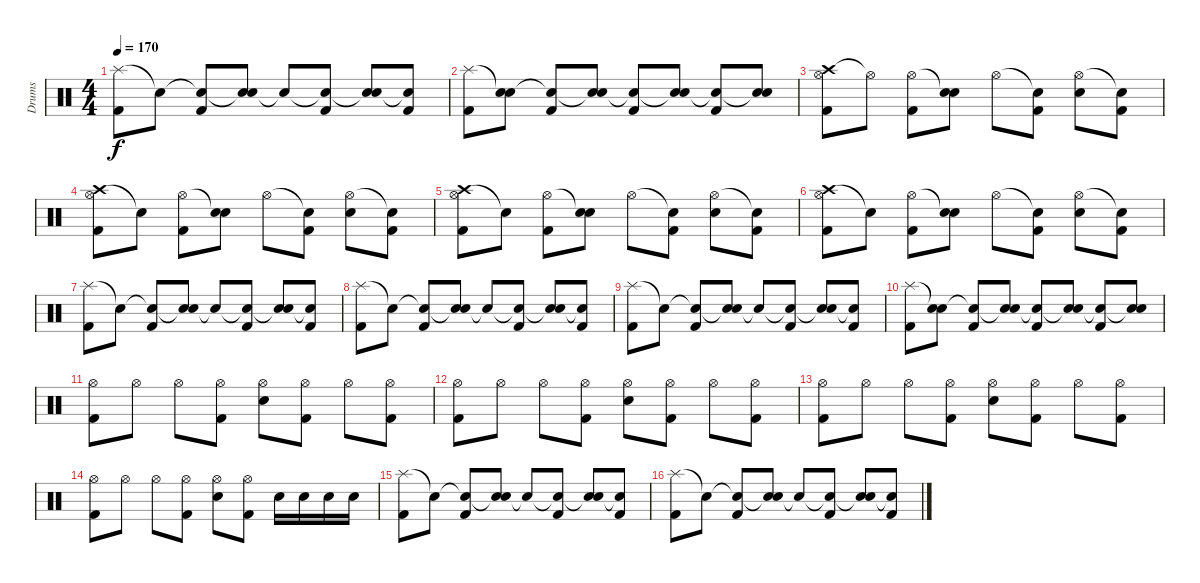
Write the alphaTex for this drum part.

\track ("Drums" "Drums") {instrument percussion}
\staff {score}
\articulation defaults
\ts (4 4)
\tempo 170
\clef neutral
\ks c
("Splash (hit)" "Kick (hit) 2").8{dy f} "Snare (hit)"{t}.8 ("Snare (hit)"{t} "Kick (hit) 2").8 ("Snare (hit)"{t} "Electric Snare (hit)").8 "Snare (hit)"{t}.8 ("Snare (hit)"{t} "Kick (hit) 2").8 ("Snare (hit)"{t} "Electric Snare (hit)").8 ("Snare (hit)"{t} "Kick (hit) 2").8 |
("Splash (hit)" "Kick (hit) 2").8 ("Snare (hit)"{t} "Electric Snare (hit)").8 ("Snare (hit)"{t} "Kick (hit) 2").8 ("Snare (hit)"{t} "Electric Snare (hit)").8 ("Snare (hit)"{t} "Kick (hit) 2").8 ("Snare (hit)"{t} "Electric Snare (hit)").8 ("Snare (hit)"{t} "Kick (hit) 2").8 ("Snare (hit)"{t} "Electric Snare (hit)").8 |
("Crash high (hit)" "Hi-Hat (open)" "Kick (hit) 2").8 "Hi-Hat (open)"{t}.8 ("Hi-Hat (open)" "Kick (hit) 2").8 ("Snare (hit)"{t} "Electric Snare (hit)").8 "Hi-Hat (open)".8 ("Snare (hit)"{t} "Kick (hit) 2").8 ("Hi-Hat (open)" "Electric Snare (hit)").8 ("Snare (hit)"{t} "Kick (hit) 2").8 |
("Crash high (hit)" "Hi-Hat (open)" "Kick (hit) 2").8 "Snare (hit)"{t}.8 ("Hi-Hat (open)" "Kick (hit) 2").8 ("Snare (hit)"{t} "Electric Snare (hit)").8 "Hi-Hat (open)".8 ("Snare (hit)"{t} "Kick (hit) 2").8 ("Hi-Hat (open)" "Electric Snare (hit)").8 ("Snare (hit)"{t} "Kick (hit) 2").8 |
("Crash high (hit)" "Hi-Hat (open)" "Kick (hit) 2").8 "Snare (hit)"{t}.8 ("Hi-Hat (open)" "Kick (hit) 2").8 ("Snare (hit)"{t} "Electric Snare (hit)").8 "Hi-Hat (open)".8 ("Snare (hit)"{t} "Kick (hit) 2").8 ("Hi-Hat (open)" "Electric Snare (hit)").8 ("Snare (hit)"{t} "Kick (hit) 2").8 |
("Crash high (hit)" "Hi-Hat (open)" "Kick (hit) 2").8 "Snare (hit)"{t}.8 ("Hi-Hat (open)" "Kick (hit) 2").8 ("Snare (hit)"{t} "Electric Snare (hit)").8 "Hi-Hat (open)".8 ("Snare (hit)"{t} "Kick (hit) 2").8 ("Hi-Hat (open)" "Electric Snare (hit)").8 ("Snare (hit)"{t} "Kick (hit) 2").8 |
("Splash (hit)" "Kick (hit) 2").8 "Snare (hit)"{t}.8 ("Snare (hit)"{t} "Kick (hit) 2").8 ("Snare (hit)"{t} "Electric Snare (hit)").8 "Snare (hit)"{t}.8 ("Snare (hit)"{t} "Kick (hit) 2").8 ("Snare (hit)"{t} "Electric Snare (hit)").8 ("Snare (hit)"{t} "Kick (hit) 2").8 |
("Splash (hit)" "Kick (hit) 2").8 "Snare (hit)"{t}.8 ("Snare (hit)"{t} "Kick (hit) 2").8 ("Snare (hit)"{t} "Electric Snare (hit)").8 "Snare (hit)"{t}.8 ("Snare (hit)"{t} "Kick (hit) 2").8 ("Snare (hit)"{t} "Electric Snare (hit)").8 ("Snare (hit)"{t} "Kick (hit) 2").8 |
("Splash (hit)" "Kick (hit) 2").8 "Snare (hit)"{t}.8 ("Snare (hit)"{t} "Kick (hit) 2").8 ("Snare (hit)"{t} "Electric Snare (hit)").8 "Snare (hit)"{t}.8 ("Snare (hit)"{t} "Kick (hit) 2").8 ("Snare (hit)"{t} "Electric Snare (hit)").8 ("Snare (hit)"{t} "Kick (hit) 2").8 |
("Splash (hit)" "Kick (hit) 2").8 ("Snare (hit)"{t} "Electric Snare (hit)").8 ("Snare (hit)"{t} "Kick (hit) 2").8 ("Snare (hit)"{t} "Electric Snare (hit)").8 ("Snare (hit)"{t} "Kick (hit) 2").8 ("Snare (hit)"{t} "Electric Snare (hit)").8 ("Snare (hit)"{t} "Kick (hit) 2").8 ("Snare (hit)"{t} "Electric Snare (hit)").8 |
("Hi-Hat (open)" "Kick (hit) 2").8 "Hi-Hat (open)".8 "Hi-Hat (open)".8 ("Hi-Hat (open)" "Kick (hit) 2").8 ("Hi-Hat (open)" "Electric Snare (hit)").8 ("Hi-Hat (open)" "Kick (hit) 2").8 "Hi-Hat (open)".8 ("Hi-Hat (open)" "Kick (hit) 2").8 |
("Hi-Hat (open)" "Kick (hit) 2").8 "Hi-Hat (open)".8 "Hi-Hat (open)".8 ("Hi-Hat (open)" "Kick (hit) 2").8 ("Hi-Hat (open)" "Electric Snare (hit)").8 ("Hi-Hat (open)" "Kick (hit) 2").8 "Hi-Hat (open)".8 ("Hi-Hat (open)" "Kick (hit) 2").8 |
("Hi-Hat (open)" "Kick (hit) 2").8 "Hi-Hat (open)".8 "Hi-Hat (open)".8 ("Hi-Hat (open)" "Kick (hit) 2").8 ("Hi-Hat (open)" "Electric Snare (hit)").8 ("Hi-Hat (open)" "Kick (hit) 2").8 "Hi-Hat (open)".8 ("Hi-Hat (open)" "Kick (hit) 2").8 |
("Hi-Hat (open)" "Kick (hit) 2").8 "Hi-Hat (open)".8 "Hi-Hat (open)".8 ("Hi-Hat (open)" "Kick (hit) 2").8 ("Hi-Hat (open)" "Electric Snare (hit)").8 ("Hi-Hat (open)" "Kick (hit) 2").8 "Electric Snare (hit)".16 "Electric Snare (hit)".16 "Electric Snare (hit)".16 "Electric Snare (hit)".16 |
("Splash (hit)" "Kick (hit) 2").8 "Snare (hit)"{t}.8 ("Snare (hit)"{t} "Kick (hit) 2").8 ("Snare (hit)"{t} "Electric Snare (hit)").8 "Snare (hit)"{t}.8 ("Snare (hit)"{t} "Kick (hit) 2").8 ("Snare (hit)"{t} "Electric Snare (hit)").8 ("Snare (hit)"{t} "Kick (hit) 2").8 |
("Splash (hit)" "Kick (hit) 2").8 "Snare (hit)"{t}.8 ("Snare (hit)"{t} "Kick (hit) 2").8 ("Snare (hit)"{t} "Electric Snare (hit)").8 "Snare (hit)"{t}.8 ("Snare (hit)"{t} "Kick (hit) 2").8 ("Snare (hit)"{t} "Electric Snare (hit)").8 ("Snare (hit)"{t} "Kick (hit) 2").8
